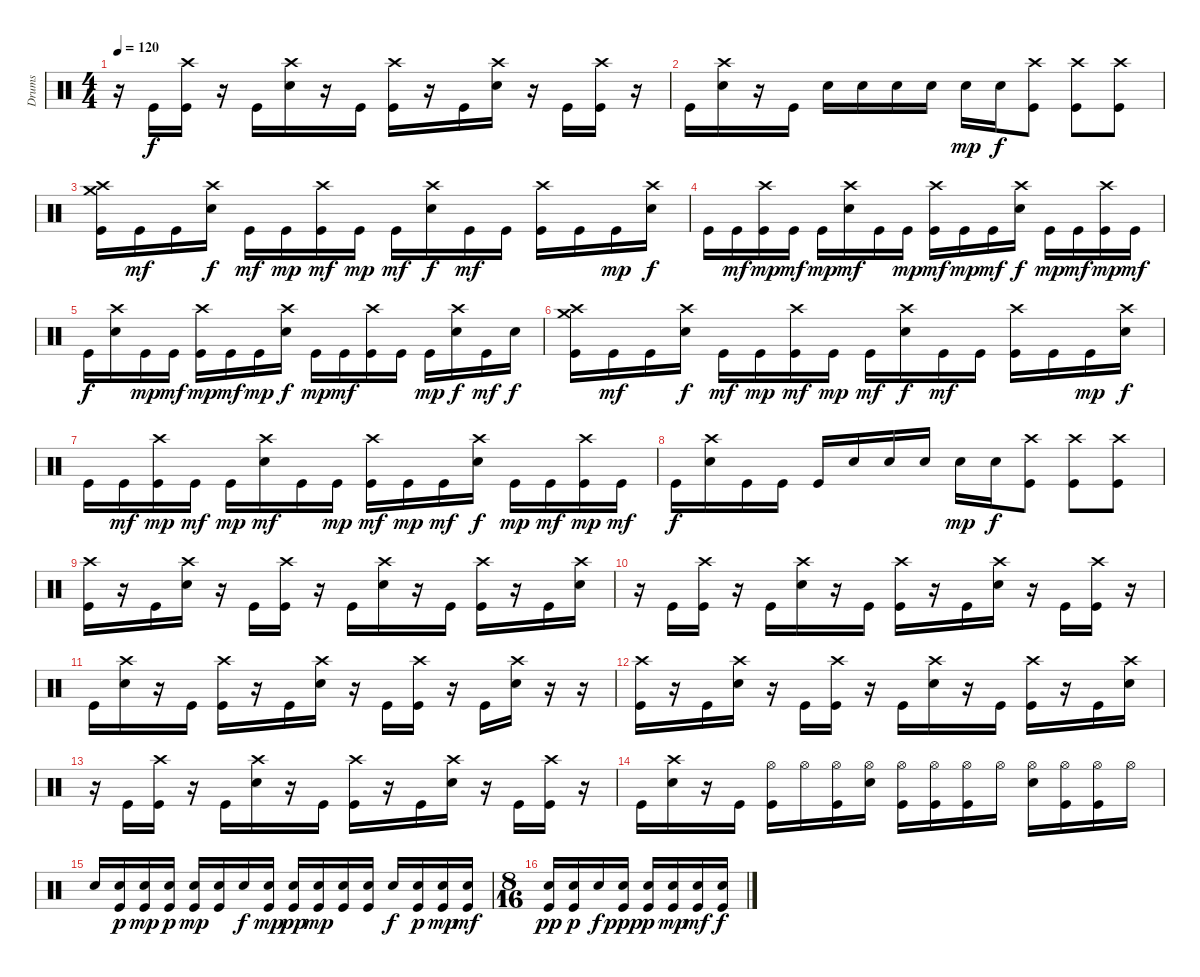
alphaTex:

\track ("Drums" "Drums") {instrument percussion}
\staff {score}
\articulation defaults
\ts (4 4)
\tempo 120
\clef neutral
\ks c
r.16{dy f} "Kick (hit)".16 ("Crash high (hit)" "Kick (hit)").16 r.16 "Kick (hit)".16 ("Crash high (hit)" "Electric Snare (hit)").16 r.16 "Kick (hit)".16 ("Crash high (hit)" "Kick (hit)").16 r.16 "Kick (hit)".16 ("Crash high (hit)" "Electric Snare (hit)").16 r.16 "Kick (hit)".16 ("Crash high (hit)" "Kick (hit)").16 r.16 |
"Kick (hit)".16 ("Crash high (hit)" "Electric Snare (hit)").16 r.16 "Kick (hit)".16 "Electric Snare (hit)".16 "Electric Snare (hit)".16 "Electric Snare (hit)".16 "Electric Snare (hit)".16 "Electric Snare (hit)".16{dy mp} "Electric Snare (hit)".16{dy f} ("Crash high (hit)" "Kick (hit)").8 ("Crash high (hit)" "Kick (hit)").8 ("Crash high (hit)" "Kick (hit)").8 |
("Crash high (hit)" "Crash medium (hit)" "Kick (hit)").16 "Kick (hit)".16{dy mf} "Kick (hit)".16 ("Crash high (hit)" "Electric Snare (hit)").16{dy f} "Kick (hit)".16{dy mf} "Kick (hit)".16{dy mp} ("Crash high (hit)" "Kick (hit)").16{dy mf} "Kick (hit)".16{dy mp} "Kick (hit)".16{dy mf} ("Crash high (hit)" "Electric Snare (hit)").16{dy f} "Kick (hit)".16{dy mf} "Kick (hit)".16 ("Crash high (hit)" "Kick (hit)").16 "Kick (hit)".16 "Kick (hit)".16{dy mp} ("Crash high (hit)" "Electric Snare (hit)").16{dy f} |
"Kick (hit)".16 "Kick (hit)".16{dy mf} ("Crash high (hit)" "Kick (hit)").16{dy mp} "Kick (hit)".16{dy mf} "Kick (hit)".16{dy mp} ("Crash high (hit)" "Electric Snare (hit)").16{dy mf} "Kick (hit)".16 "Kick (hit)".16{dy mp} ("Crash high (hit)" "Kick (hit)").16{dy mf} "Kick (hit)".16{dy mp} "Kick (hit)".16{dy mf} ("Crash high (hit)" "Electric Snare (hit)").16{dy f} "Kick (hit)".16{dy mp} "Kick (hit)".16{dy mf} ("Crash high (hit)" "Kick (hit)").16{dy mp} "Kick (hit)".16{dy mf} |
"Kick (hit)".16{dy f} ("Crash high (hit)" "Electric Snare (hit)").16 "Kick (hit)".16{dy mp} "Kick (hit)".16{dy mf} ("Crash high (hit)" "Kick (hit)").16{dy mp} "Kick (hit)".16{dy mf} "Kick (hit)".16{dy mp} ("Crash high (hit)" "Electric Snare (hit)").16{dy f} "Kick (hit)".16{dy mp} "Kick (hit)".16{dy mf} ("Crash high (hit)" "Kick (hit)").16 "Kick (hit)".16 "Kick (hit)".16{dy mp} ("Crash high (hit)" "Electric Snare (hit)").16{dy f} "Kick (hit)".16{dy mf} "Electric Snare (hit)".16{dy f} |
("Crash high (hit)" "Crash medium (hit)" "Kick (hit)").16 "Kick (hit)".16{dy mf} "Kick (hit)".16 ("Crash high (hit)" "Electric Snare (hit)").16{dy f} "Kick (hit)".16{dy mf} "Kick (hit)".16{dy mp} ("Crash high (hit)" "Kick (hit)").16{dy mf} "Kick (hit)".16{dy mp} "Kick (hit)".16{dy mf} ("Crash high (hit)" "Electric Snare (hit)").16{dy f} "Kick (hit)".16{dy mf} "Kick (hit)".16 ("Crash high (hit)" "Kick (hit)").16 "Kick (hit)".16 "Kick (hit)".16{dy mp} ("Crash high (hit)" "Electric Snare (hit)").16{dy f} |
"Kick (hit)".16 "Kick (hit)".16{dy mf} ("Crash high (hit)" "Kick (hit)").16{dy mp} "Kick (hit)".16{dy mf} "Kick (hit)".16{dy mp} ("Crash high (hit)" "Electric Snare (hit)").16{dy mf} "Kick (hit)".16 "Kick (hit)".16{dy mp} ("Crash high (hit)" "Kick (hit)").16{dy mf} "Kick (hit)".16{dy mp} "Kick (hit)".16{dy mf} ("Crash high (hit)" "Electric Snare (hit)").16{dy f} "Kick (hit)".16{dy mp} "Kick (hit)".16{dy mf} ("Crash high (hit)" "Kick (hit)").16{dy mp} "Kick (hit)".16{dy mf} |
"Kick (hit)".16{dy f} ("Crash high (hit)" "Electric Snare (hit)").16 "Kick (hit)".16 "Kick (hit)".16 "Kick (hit)".16 "Electric Snare (hit)".16 "Electric Snare (hit)".16 "Electric Snare (hit)".16 "Electric Snare (hit)".16{dy mp} "Electric Snare (hit)".16{dy f} ("Crash high (hit)" "Kick (hit)").8 ("Crash high (hit)" "Kick (hit)").8 ("Crash high (hit)" "Kick (hit)").8 |
("Crash high (hit)" "Kick (hit)").16 r.16 "Kick (hit)".16 ("Crash high (hit)" "Electric Snare (hit)").16 r.16 "Kick (hit)".16 ("Crash high (hit)" "Kick (hit)").16 r.16 "Kick (hit)".16 ("Crash high (hit)" "Electric Snare (hit)").16 r.16 "Kick (hit)".16 ("Crash high (hit)" "Kick (hit)").16 r.16 "Kick (hit)".16 ("Crash high (hit)" "Electric Snare (hit)").16 |
r.16 "Kick (hit)".16 ("Crash high (hit)" "Kick (hit)").16 r.16 "Kick (hit)".16 ("Crash high (hit)" "Electric Snare (hit)").16 r.16 "Kick (hit)".16 ("Crash high (hit)" "Kick (hit)").16 r.16 "Kick (hit)".16 ("Crash high (hit)" "Electric Snare (hit)").16 r.16 "Kick (hit)".16 ("Crash high (hit)" "Kick (hit)").16 r.16 |
"Kick (hit)".16 ("Crash high (hit)" "Electric Snare (hit)").16 r.16 "Kick (hit)".16 ("Crash high (hit)" "Kick (hit)").16 r.16 "Kick (hit)".16 ("Crash high (hit)" "Electric Snare (hit)").16 r.16 "Kick (hit)".16 ("Crash high (hit)" "Kick (hit)").16 r.16 "Kick (hit)".16 ("Crash high (hit)" "Electric Snare (hit)").16 r.16 r.16 |
("Crash high (hit)" "Kick (hit)").16 r.16 "Kick (hit)".16 ("Crash high (hit)" "Electric Snare (hit)").16 r.16 "Kick (hit)".16 ("Crash high (hit)" "Kick (hit)").16 r.16 "Kick (hit)".16 ("Crash high (hit)" "Electric Snare (hit)").16 r.16 "Kick (hit)".16 ("Crash high (hit)" "Kick (hit)").16 r.16 "Kick (hit)".16 ("Crash high (hit)" "Electric Snare (hit)").16 |
r.16 "Kick (hit)".16 ("Crash high (hit)" "Kick (hit)").16 r.16 "Kick (hit)".16 ("Crash high (hit)" "Electric Snare (hit)").16 r.16 "Kick (hit)".16 ("Crash high (hit)" "Kick (hit)").16 r.16 "Kick (hit)".16 ("Crash high (hit)" "Electric Snare (hit)").16 r.16 "Kick (hit)".16 ("Crash high (hit)" "Kick (hit)").16 r.16 |
"Kick (hit)".16 ("Crash high (hit)" "Electric Snare (hit)").16 r.16 "Kick (hit)".16 ("Hi-Hat (open)" "Kick (hit)").16 "Hi-Hat (open)".16 ("Hi-Hat (open)" "Kick (hit)").16 ("Hi-Hat (open)" "Electric Snare (hit)").16 ("Hi-Hat (open)" "Kick (hit)").16 ("Hi-Hat (open)" "Kick (hit)").16 ("Hi-Hat (open)" "Kick (hit)").16 "Hi-Hat (open)".16 ("Hi-Hat (open)" "Electric Snare (hit)").16 ("Hi-Hat (open)" "Kick (hit)").16 ("Hi-Hat (open)" "Kick (hit)").16 "Hi-Hat (open)".16 |
"Electric Snare (hit)".16 ("Electric Snare (hit)" "Kick (hit)").16{dy p} ("Electric Snare (hit)" "Kick (hit)").16{dy mp} ("Electric Snare (hit)" "Kick (hit)").16{dy p} ("Electric Snare (hit)" "Kick (hit)").16{dy mp} ("Electric Snare (hit)" "Kick (hit)").16 "Electric Snare (hit)".16{dy f} ("Electric Snare (hit)" "Kick (hit)").16{dy mp} ("Electric Snare (hit)" "Kick (hit)").16{dy pp} ("Electric Snare (hit)" "Kick (hit)").16{dy mp} ("Electric Snare (hit)" "Kick (hit)").16 ("Electric Snare (hit)" "Kick (hit)").16 "Electric Snare (hit)".16{dy f} ("Electric Snare (hit)" "Kick (hit)").16{dy p} ("Electric Snare (hit)" "Kick (hit)").16{dy mp} ("Electric Snare (hit)" "Kick (hit)").16{dy mf} |
\ts (8 16)
("Electric Snare (hit)" "Kick (hit)").16{dy pp} ("Electric Snare (hit)" "Kick (hit)").16{dy p} "Electric Snare (hit)".16{dy f} ("Electric Snare (hit)" "Kick (hit)").16{dy ppp} ("Electric Snare (hit)" "Kick (hit)").16{dy p} ("Electric Snare (hit)" "Kick (hit)").16{dy mp} ("Electric Snare (hit)" "Kick (hit)").16{dy mf} ("Electric Snare (hit)" "Kick (hit)").16{dy f}
